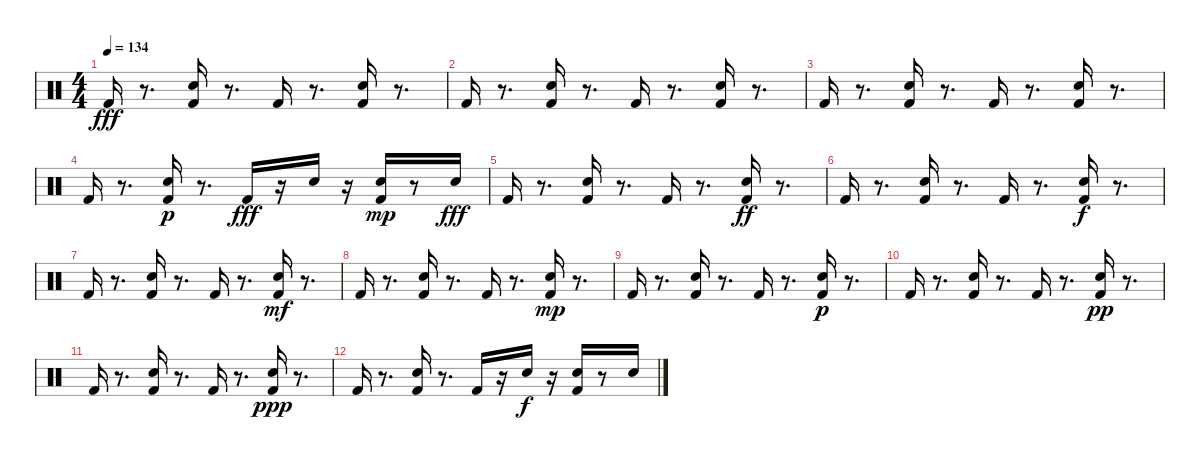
\track "" {instrument percussion}
\staff {score}
\articulation defaults
\ts (4 4)
\tempo 134
\clef neutral
\ks c "Kick (hit) 2".16{dy fff}
r.8{d} ("Kick (hit) 2" "Snare (hit) 2").16 r.8{d} "Kick (hit) 2".16 r.8{d} ("Kick (hit) 2" "Snare (hit) 2").16 r.8{d} |
"Kick (hit) 2".16 r.8{d} ("Kick (hit) 2" "Snare (hit) 2").16 r.8{d} "Kick (hit) 2".16 r.8{d} ("Kick (hit) 2" "Snare (hit) 2").16 r.8{d} |
"Kick (hit) 2".16 r.8{d} ("Kick (hit) 2" "Snare (hit) 2").16 r.8{d} "Kick (hit) 2".16 r.8{d} ("Kick (hit) 2" "Snare (hit) 2").16 r.8{d} |
"Kick (hit) 2".16 r.8{d} ("Snare (hit) 2" "Kick (hit) 2").16{dy p} r.8{d} "Kick (hit) 2".16{dy fff} r.16 "Snare (hit) 2".16 r.16 ("Snare (hit) 2" "Kick (hit) 2").16{dy mp} r.8 "Snare (hit) 2".16{dy fff} |
"Kick (hit) 2".16 r.8{d} ("Kick (hit) 2" "Snare (hit) 2").16 r.8{d} "Kick (hit) 2".16 r.8{d} ("Kick (hit) 2" "Snare (hit) 2").16{dy ff} r.8{d} |
"Kick (hit) 2".16 r.8{d} ("Snare (hit) 2" "Kick (hit) 2").16 r.8{d} "Kick (hit) 2".16 r.8{d} ("Snare (hit) 2" "Kick (hit) 2").16{dy f} r.8{d} |
"Kick (hit) 2".16 r.8{d} ("Kick (hit) 2" "Snare (hit) 2").16 r.8{d} "Kick (hit) 2".16 r.8{d} ("Kick (hit) 2" "Snare (hit) 2").16{dy mf} r.8{d} |
"Kick (hit) 2".16 r.8{d} ("Kick (hit) 2" "Snare (hit) 2").16 r.8{d} "Kick (hit) 2".16 r.8{d} ("Kick (hit) 2" "Snare (hit) 2").16{dy mp} r.8{d} |
"Kick (hit) 2".16 r.8{d} ("Kick (hit) 2" "Snare (hit) 2").16 r.8{d} "Kick (hit) 2".16 r.8{d} ("Kick (hit) 2" "Snare (hit) 2").16{dy p} r.8{d} |
"Kick (hit) 2".16 r.8{d} ("Kick (hit) 2" "Snare (hit) 2").16 r.8{d} "Kick (hit) 2".16 r.8{d} ("Kick (hit) 2" "Snare (hit) 2").16{dy pp} r.8{d} |
"Kick (hit) 2".16 r.8{d} ("Kick (hit) 2" "Snare (hit) 2").16 r.8{d} "Kick (hit) 2".16 r.8{d} ("Kick (hit) 2" "Snare (hit) 2").16{dy ppp} r.8{d} |
"Kick (hit) 2".16 r.8{d} ("Snare (hit) 2" "Kick (hit) 2").16 r.8{d} "Kick (hit) 2".16 r.16 "Snare (hit) 2".16{dy f} r.16 ("Snare (hit) 2" "Kick (hit) 2").16 r.8 "Snare (hit) 2".16
